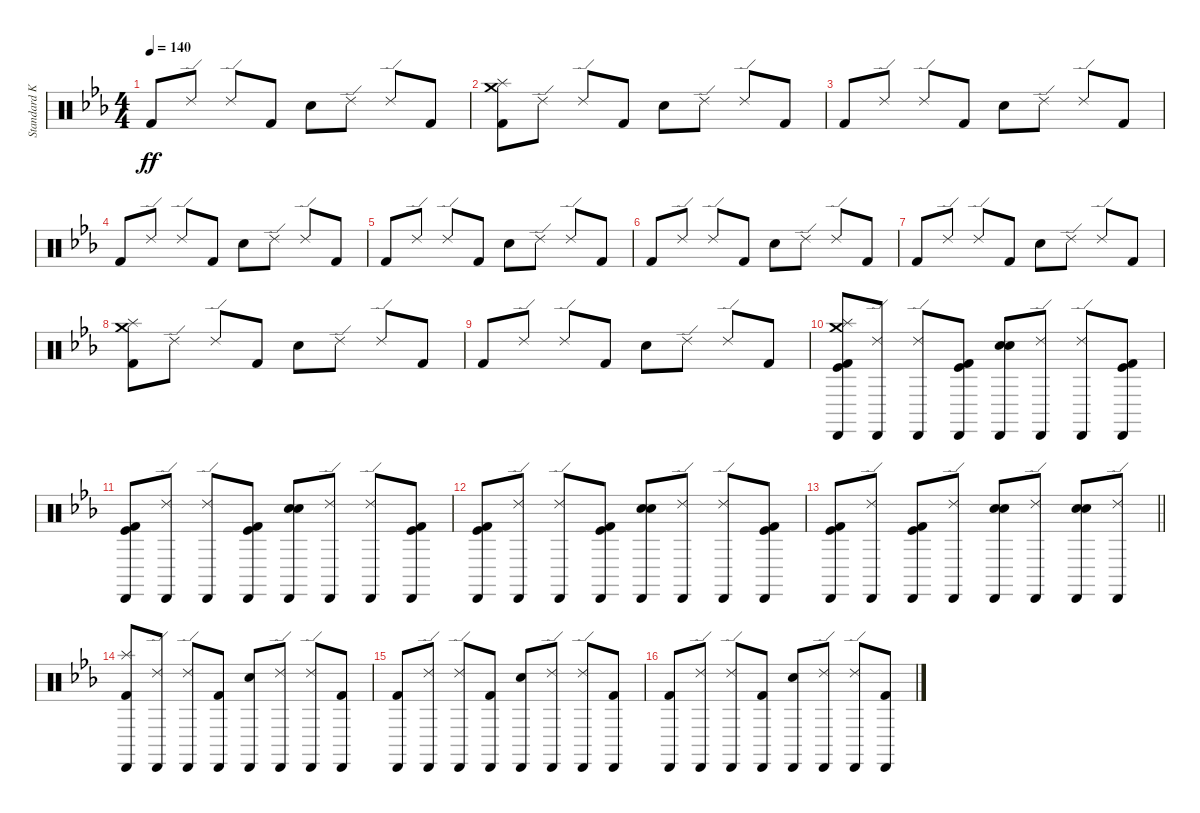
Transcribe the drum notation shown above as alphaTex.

\track ("Standard Kit" "Standard K") {instrument percussion}
\staff {score}
\articulation defaults
\ts (4 4)
\tempo 140
\clef neutral
\ks eb "Kick (hit) 2".8{dy ff} "Ride (edge) 2".8 "Ride (edge) 2".8 "Kick (hit) 2".8 "Snare (hit) 2".8 "Ride (edge) 2".8 "Ride (edge) 2".8 "Kick (hit) 2".8
|
("Kick (hit) 2" "Crash medium (hit)" "Splash (hit)").8 "Ride (edge) 2".8 "Ride (edge) 2".8 "Kick (hit) 2".8 "Snare (hit) 2".8 "Ride (edge) 2".8 "Ride (edge) 2".8 "Kick (hit) 2".8 |
"Kick (hit) 2".8 "Ride (edge) 2".8 "Ride (edge) 2".8 "Kick (hit) 2".8 "Snare (hit) 2".8 "Ride (edge) 2".8 "Ride (edge) 2".8 "Kick (hit) 2".8 |
"Kick (hit) 2".8 "Ride (edge) 2".8 "Ride (edge) 2".8 "Kick (hit) 2".8 "Snare (hit) 2".8 "Ride (edge) 2".8 "Ride (edge) 2".8 "Kick (hit) 2".8 |
"Kick (hit) 2".8 "Ride (edge) 2".8 "Ride (edge) 2".8 "Kick (hit) 2".8 "Snare (hit) 2".8 "Ride (edge) 2".8 "Ride (edge) 2".8 "Kick (hit) 2".8 |
"Kick (hit) 2".8 "Ride (edge) 2".8 "Ride (edge) 2".8 "Kick (hit) 2".8 "Snare (hit) 2".8 "Ride (edge) 2".8 "Ride (edge) 2".8 "Kick (hit) 2".8 |
"Kick (hit) 2".8 "Ride (edge) 2".8 "Ride (edge) 2".8 "Kick (hit) 2".8 "Snare (hit) 2".8 "Ride (edge) 2".8 "Ride (edge) 2".8 "Kick (hit) 2".8 |
("Kick (hit) 2" "Crash medium (hit)" "Splash (hit)").8 "Ride (edge) 2".8 "Ride (edge) 2".8 "Kick (hit) 2".8 "Snare (hit) 2".8 "Ride (edge) 2".8 "Ride (edge) 2".8 "Kick (hit) 2".8 |
"Kick (hit) 2".8 "Ride (edge) 2".8 "Ride (edge) 2".8 "Kick (hit) 2".8 "Snare (hit) 2".8 "Ride (edge) 2".8 "Ride (edge) 2".8 "Kick (hit) 2".8 |
("Kick (hit)" "Kick (hit) 2" "Cabasa (hit)" "Crash medium (hit)" "Splash (hit)").8 ("Cabasa (hit)" "Ride (edge) 2").8 ("Cabasa (hit)" "Ride (edge) 2").8 ("Kick (hit)" "Kick (hit) 2" "Cabasa (hit)").8 ("Cabasa (hit)" "Electric Snare (hit)" "Snare (hit) 2").8 ("Cabasa (hit)" "Ride (edge) 2").8 ("Cabasa (hit)" "Ride (edge) 2").8 ("Kick (hit)" "Kick (hit) 2" "Cabasa (hit)").8 |
("Kick (hit)" "Kick (hit) 2" "Cabasa (hit)").8 ("Cabasa (hit)" "Ride (edge) 2").8 ("Cabasa (hit)" "Ride (edge) 2").8 ("Kick (hit)" "Kick (hit) 2" "Cabasa (hit)").8 ("Cabasa (hit)" "Electric Snare (hit)" "Snare (hit) 2").8 ("Cabasa (hit)" "Ride (edge) 2").8 ("Cabasa (hit)" "Ride (edge) 2").8 ("Kick (hit)" "Kick (hit) 2" "Cabasa (hit)").8 |
("Kick (hit)" "Kick (hit) 2" "Cabasa (hit)").8 ("Cabasa (hit)" "Ride (edge) 2").8 ("Cabasa (hit)" "Ride (edge) 2").8 ("Kick (hit)" "Kick (hit) 2" "Cabasa (hit)").8 ("Cabasa (hit)" "Electric Snare (hit)" "Snare (hit) 2").8 ("Cabasa (hit)" "Ride (edge) 2").8 ("Cabasa (hit)" "Ride (edge) 2").8 ("Kick (hit)" "Kick (hit) 2" "Cabasa (hit)").8 |
\barLineRight lightlight
("Kick (hit)" "Kick (hit) 2" "Cabasa (hit)").8 ("Cabasa (hit)" "Ride (edge) 2").8 ("Kick (hit)" "Kick (hit) 2" "Cabasa (hit)").8 ("Cabasa (hit)" "Ride (edge) 2").8 ("Cabasa (hit)" "Electric Snare (hit)" "Snare (hit) 2").8 ("Cabasa (hit)" "Ride (edge) 2").8 ("Cabasa (hit)" "Electric Snare (hit)" "Snare (hit) 2").8 ("Cabasa (hit)" "Ride (edge) 2").8 |
("Kick (hit) 2" "Cabasa (hit)" "Splash (hit)").8 ("Cabasa (hit)" "Ride (edge) 2").8 ("Cabasa (hit)" "Ride (edge) 2").8 ("Kick (hit) 2" "Cabasa (hit)").8 ("Cabasa (hit)" "Snare (hit) 2").8 ("Cabasa (hit)" "Ride (edge) 2").8 ("Cabasa (hit)" "Ride (edge) 2").8 ("Kick (hit) 2" "Cabasa (hit)").8 |
("Kick (hit) 2" "Cabasa (hit)").8 ("Cabasa (hit)" "Ride (edge) 2").8 ("Cabasa (hit)" "Ride (edge) 2").8 ("Kick (hit) 2" "Cabasa (hit)").8 ("Cabasa (hit)" "Snare (hit) 2").8 ("Cabasa (hit)" "Ride (edge) 2").8 ("Cabasa (hit)" "Ride (edge) 2").8 ("Kick (hit) 2" "Cabasa (hit)").8 |
("Kick (hit) 2" "Cabasa (hit)").8 ("Cabasa (hit)" "Ride (edge) 2").8 ("Cabasa (hit)" "Ride (edge) 2").8 ("Kick (hit) 2" "Cabasa (hit)").8 ("Cabasa (hit)" "Snare (hit) 2").8 ("Cabasa (hit)" "Ride (edge) 2").8 ("Cabasa (hit)" "Ride (edge) 2").8 ("Kick (hit) 2" "Cabasa (hit)").8
